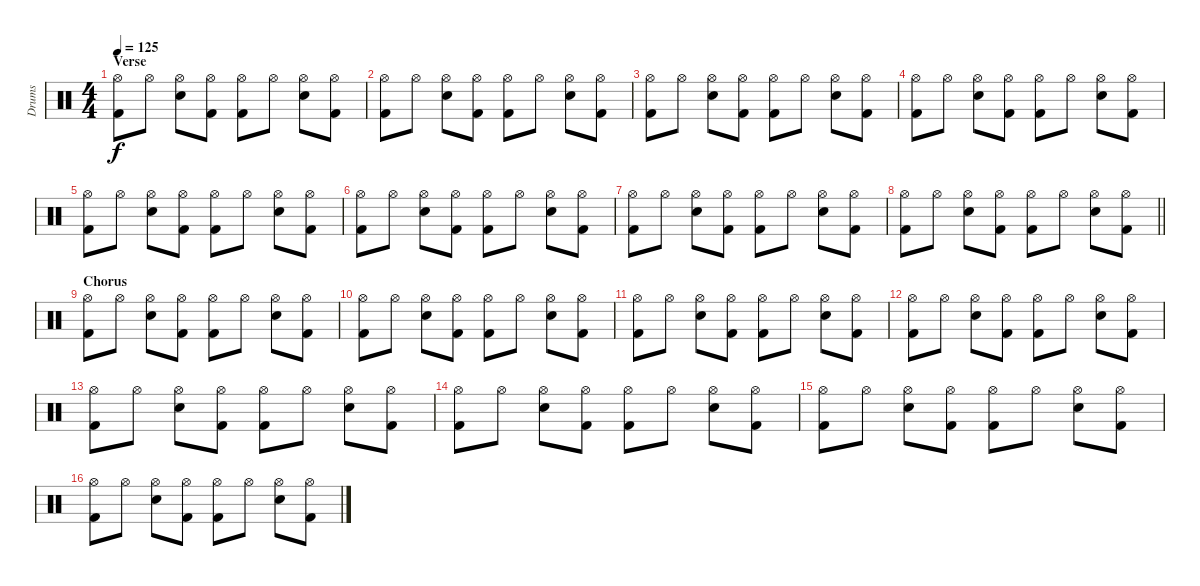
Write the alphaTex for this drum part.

\track ("Drums" "Drums") {instrument percussion}
\staff {score}
\articulation defaults
\ts (4 4)
\section ("" "Verse")
\tempo 125
\clef neutral
\ks c
("Kick (hit) 2" "Hi-Hat (open)").8{dy f} "Hi-Hat (open)".8 ("Electric Snare (hit)" "Hi-Hat (open)").8 ("Kick (hit) 2" "Hi-Hat (open)").8 ("Kick (hit) 2" "Hi-Hat (open)").8 "Hi-Hat (open)".8 ("Electric Snare (hit)" "Hi-Hat (open)").8 ("Kick (hit) 2" "Hi-Hat (open)").8 |
("Kick (hit) 2" "Hi-Hat (open)").8 "Hi-Hat (open)".8 ("Electric Snare (hit)" "Hi-Hat (open)").8 ("Kick (hit) 2" "Hi-Hat (open)").8 ("Kick (hit) 2" "Hi-Hat (open)").8 "Hi-Hat (open)".8 ("Electric Snare (hit)" "Hi-Hat (open)").8 ("Kick (hit) 2" "Hi-Hat (open)").8 |
("Kick (hit) 2" "Hi-Hat (open)").8 "Hi-Hat (open)".8 ("Electric Snare (hit)" "Hi-Hat (open)").8 ("Kick (hit) 2" "Hi-Hat (open)").8 ("Kick (hit) 2" "Hi-Hat (open)").8 "Hi-Hat (open)".8 ("Electric Snare (hit)" "Hi-Hat (open)").8 ("Kick (hit) 2" "Hi-Hat (open)").8 |
("Kick (hit) 2" "Hi-Hat (open)").8 "Hi-Hat (open)".8 ("Electric Snare (hit)" "Hi-Hat (open)").8 ("Kick (hit) 2" "Hi-Hat (open)").8 ("Kick (hit) 2" "Hi-Hat (open)").8 "Hi-Hat (open)".8 ("Electric Snare (hit)" "Hi-Hat (open)").8 ("Kick (hit) 2" "Hi-Hat (open)").8 |
("Kick (hit) 2" "Hi-Hat (open)").8 "Hi-Hat (open)".8 ("Electric Snare (hit)" "Hi-Hat (open)").8 ("Kick (hit) 2" "Hi-Hat (open)").8 ("Kick (hit) 2" "Hi-Hat (open)").8 "Hi-Hat (open)".8 ("Electric Snare (hit)" "Hi-Hat (open)").8 ("Kick (hit) 2" "Hi-Hat (open)").8 |
("Kick (hit) 2" "Hi-Hat (open)").8 "Hi-Hat (open)".8 ("Electric Snare (hit)" "Hi-Hat (open)").8 ("Kick (hit) 2" "Hi-Hat (open)").8 ("Kick (hit) 2" "Hi-Hat (open)").8 "Hi-Hat (open)".8 ("Electric Snare (hit)" "Hi-Hat (open)").8 ("Kick (hit) 2" "Hi-Hat (open)").8 |
("Kick (hit) 2" "Hi-Hat (open)").8 "Hi-Hat (open)".8 ("Electric Snare (hit)" "Hi-Hat (open)").8 ("Kick (hit) 2" "Hi-Hat (open)").8 ("Kick (hit) 2" "Hi-Hat (open)").8 "Hi-Hat (open)".8 ("Electric Snare (hit)" "Hi-Hat (open)").8 ("Kick (hit) 2" "Hi-Hat (open)").8 |
\barLineRight lightlight
("Kick (hit) 2" "Hi-Hat (open)").8 "Hi-Hat (open)".8 ("Electric Snare (hit)" "Hi-Hat (open)").8 ("Kick (hit) 2" "Hi-Hat (open)").8 ("Kick (hit) 2" "Hi-Hat (open)").8 "Hi-Hat (open)".8 ("Electric Snare (hit)" "Hi-Hat (open)").8 ("Kick (hit) 2" "Hi-Hat (open)").8 |
\section ("" "Chorus")
("Kick (hit) 2" "Hi-Hat (open)").8 "Hi-Hat (open)".8 ("Electric Snare (hit)" "Hi-Hat (open)").8 ("Kick (hit) 2" "Hi-Hat (open)").8 ("Kick (hit) 2" "Hi-Hat (open)").8 "Hi-Hat (open)".8 ("Electric Snare (hit)" "Hi-Hat (open)").8 ("Kick (hit) 2" "Hi-Hat (open)").8 |
("Kick (hit) 2" "Hi-Hat (open)").8 "Hi-Hat (open)".8 ("Electric Snare (hit)" "Hi-Hat (open)").8 ("Kick (hit) 2" "Hi-Hat (open)").8 ("Kick (hit) 2" "Hi-Hat (open)").8 "Hi-Hat (open)".8 ("Electric Snare (hit)" "Hi-Hat (open)").8 ("Kick (hit) 2" "Hi-Hat (open)").8 |
("Kick (hit) 2" "Hi-Hat (open)").8 "Hi-Hat (open)".8 ("Electric Snare (hit)" "Hi-Hat (open)").8 ("Kick (hit) 2" "Hi-Hat (open)").8 ("Kick (hit) 2" "Hi-Hat (open)").8 "Hi-Hat (open)".8 ("Electric Snare (hit)" "Hi-Hat (open)").8 ("Kick (hit) 2" "Hi-Hat (open)").8 |
("Kick (hit) 2" "Hi-Hat (open)").8 "Hi-Hat (open)".8 ("Electric Snare (hit)" "Hi-Hat (open)").8 ("Kick (hit) 2" "Hi-Hat (open)").8 ("Kick (hit) 2" "Hi-Hat (open)").8 "Hi-Hat (open)".8 ("Electric Snare (hit)" "Hi-Hat (open)").8 ("Kick (hit) 2" "Hi-Hat (open)").8 |
("Kick (hit) 2" "Hi-Hat (open)").8 "Hi-Hat (open)".8 ("Electric Snare (hit)" "Hi-Hat (open)").8 ("Kick (hit) 2" "Hi-Hat (open)").8 ("Kick (hit) 2" "Hi-Hat (open)").8 "Hi-Hat (open)".8 ("Electric Snare (hit)" "Hi-Hat (open)").8 ("Kick (hit) 2" "Hi-Hat (open)").8 |
("Kick (hit) 2" "Hi-Hat (open)").8 "Hi-Hat (open)".8 ("Electric Snare (hit)" "Hi-Hat (open)").8 ("Kick (hit) 2" "Hi-Hat (open)").8 ("Kick (hit) 2" "Hi-Hat (open)").8 "Hi-Hat (open)".8 ("Electric Snare (hit)" "Hi-Hat (open)").8 ("Kick (hit) 2" "Hi-Hat (open)").8 |
("Kick (hit) 2" "Hi-Hat (open)").8 "Hi-Hat (open)".8 ("Electric Snare (hit)" "Hi-Hat (open)").8 ("Kick (hit) 2" "Hi-Hat (open)").8 ("Kick (hit) 2" "Hi-Hat (open)").8 "Hi-Hat (open)".8 ("Electric Snare (hit)" "Hi-Hat (open)").8 ("Kick (hit) 2" "Hi-Hat (open)").8 |
("Kick (hit) 2" "Hi-Hat (open)").8 "Hi-Hat (open)".8 ("Electric Snare (hit)" "Hi-Hat (open)").8 ("Kick (hit) 2" "Hi-Hat (open)").8 ("Kick (hit) 2" "Hi-Hat (open)").8 "Hi-Hat (open)".8 ("Electric Snare (hit)" "Hi-Hat (open)").8 ("Kick (hit) 2" "Hi-Hat (open)").8
